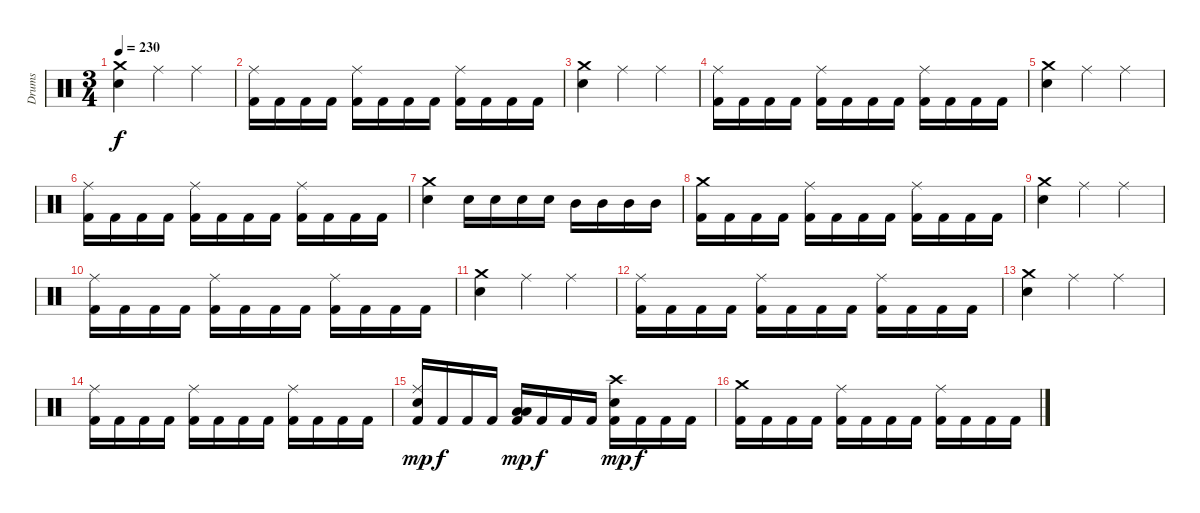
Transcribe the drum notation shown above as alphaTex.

\track ("Drums" "Drums") {instrument percussion}
\staff {score}
\articulation defaults
\ts (3 4)
\tempo 230
\clef neutral
\ks c
("Crash medium (hit)" "Electric Snare (hit)").4{dy f} "Ride (middle)".4 "Ride (middle)".4 |
("Ride (middle)" "Kick (hit) 2").16 "Kick (hit) 2".16 "Kick (hit) 2".16 "Kick (hit) 2".16 ("Ride (middle)" "Kick (hit) 2").16 "Kick (hit) 2".16 "Kick (hit) 2".16 "Kick (hit) 2".16 ("Ride (middle)" "Kick (hit) 2").16 "Kick (hit) 2".16 "Kick (hit) 2".16 "Kick (hit) 2".16 |
("Crash medium (hit)" "Electric Snare (hit)").4 "Ride (middle)".4 "Ride (middle)".4 |
("Ride (middle)" "Kick (hit) 2").16 "Kick (hit) 2".16 "Kick (hit) 2".16 "Kick (hit) 2".16 ("Ride (middle)" "Kick (hit) 2").16 "Kick (hit) 2".16 "Kick (hit) 2".16 "Kick (hit) 2".16 ("Ride (middle)" "Kick (hit) 2").16 "Kick (hit) 2".16 "Kick (hit) 2".16 "Kick (hit) 2".16 |
("Crash medium (hit)" "Electric Snare (hit)").4 "Ride (middle)".4 "Ride (middle)".4 |
("Ride (middle)" "Kick (hit) 2").16 "Kick (hit) 2".16 "Kick (hit) 2".16 "Kick (hit) 2".16 ("Ride (middle)" "Kick (hit) 2").16 "Kick (hit) 2".16 "Kick (hit) 2".16 "Kick (hit) 2".16 ("Ride (middle)" "Kick (hit) 2").16 "Kick (hit) 2".16 "Kick (hit) 2".16 "Kick (hit) 2".16 |
("Crash medium (hit)" "Electric Snare (hit)").4 "Electric Snare (hit)".16 "Electric Snare (hit)".16 "Electric Snare (hit)".16 "Electric Snare (hit)".16 "Mid Tom (hit)".16 "Mid Tom (hit)".16 "Mid Tom (hit)".16 "Mid Tom (hit)".16 |
("Crash medium (hit)" "Kick (hit) 2").16 "Kick (hit) 2".16 "Kick (hit) 2".16 "Kick (hit) 2".16 ("Ride (middle)" "Kick (hit) 2").16 "Kick (hit) 2".16 "Kick (hit) 2".16 "Kick (hit) 2".16 ("Ride (middle)" "Kick (hit) 2").16 "Kick (hit) 2".16 "Kick (hit) 2".16 "Kick (hit) 2".16 |
("Crash medium (hit)" "Electric Snare (hit)").4 "Ride (middle)".4 "Ride (middle)".4 |
("Ride (middle)" "Kick (hit) 2").16 "Kick (hit) 2".16 "Kick (hit) 2".16 "Kick (hit) 2".16 ("Ride (middle)" "Kick (hit) 2").16 "Kick (hit) 2".16 "Kick (hit) 2".16 "Kick (hit) 2".16 ("Ride (middle)" "Kick (hit) 2").16 "Kick (hit) 2".16 "Kick (hit) 2".16 "Kick (hit) 2".16 |
("Crash medium (hit)" "Electric Snare (hit)").4 "Ride (middle)".4 "Ride (middle)".4 |
("Ride (middle)" "Kick (hit) 2").16 "Kick (hit) 2".16 "Kick (hit) 2".16 "Kick (hit) 2".16 ("Ride (middle)" "Kick (hit) 2").16 "Kick (hit) 2".16 "Kick (hit) 2".16 "Kick (hit) 2".16 ("Ride (middle)" "Kick (hit) 2").16 "Kick (hit) 2".16 "Kick (hit) 2".16 "Kick (hit) 2".16 |
("Crash medium (hit)" "Electric Snare (hit)").4 "Ride (middle)".4 "Ride (middle)".4 |
("Ride (middle)" "Kick (hit) 2").16 "Kick (hit) 2".16 "Kick (hit) 2".16 "Kick (hit) 2".16 ("Ride (middle)" "Kick (hit) 2").16 "Kick (hit) 2".16 "Kick (hit) 2".16 "Kick (hit) 2".16 ("Ride (middle)" "Kick (hit) 2").16 "Kick (hit) 2".16 "Kick (hit) 2".16 "Kick (hit) 2".16 |
("Ride (middle)" "Electric Snare (hit)" "Kick (hit) 2").16{dy mp} "Kick (hit) 2".16{dy f} "Kick (hit) 2".16 "Kick (hit) 2".16 ("Low Tom (hit)" "Low Tom (hit)" "Kick (hit) 2").16{dy mp} "Kick (hit) 2".16{dy f} "Kick (hit) 2".16 "Kick (hit) 2".16 ("Crash high (hit)" "Electric Snare (hit)" "Kick (hit) 2").16{dy mp} "Kick (hit) 2".16{dy f} "Kick (hit) 2".16 "Kick (hit) 2".16 |
("Crash medium (hit)" "Kick (hit) 2").16 "Kick (hit) 2".16 "Kick (hit) 2".16 "Kick (hit) 2".16 ("Ride (middle)" "Kick (hit) 2").16 "Kick (hit) 2".16 "Kick (hit) 2".16 "Kick (hit) 2".16 ("Ride (middle)" "Kick (hit) 2").16 "Kick (hit) 2".16 "Kick (hit) 2".16 "Kick (hit) 2".16
